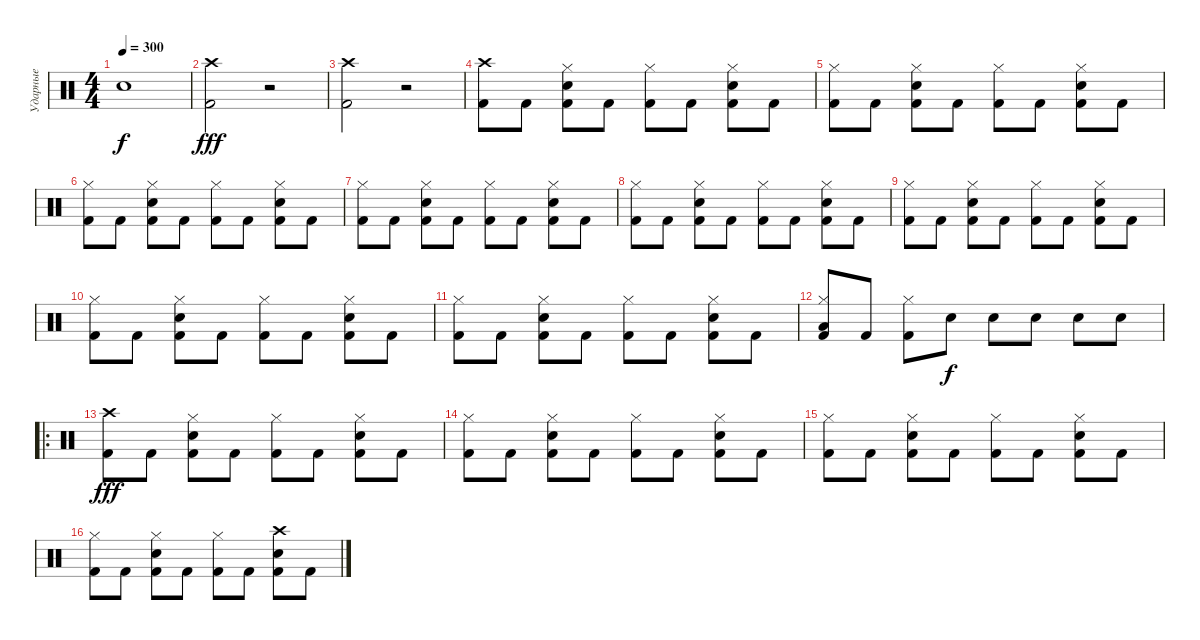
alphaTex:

\track ("Ударные" "Ударные") {instrument percussion}
\staff {score}
\articulation defaults
\ts (4 4)
\tempo 300
\clef neutral
\ks c "Snare (hit)"{t}.1{dy f}
|
("Kick (hit) 2" "Crash high (hit)").2{dy fff} r.2 |
("Kick (hit) 2" "Crash high (hit)").2 r.2 |
("Kick (hit) 2" "Crash high (hit)").8 "Kick (hit) 2".8 ("Kick (hit) 2" "Snare (hit) 2" "Hi-Hat (closed)").8 "Kick (hit) 2".8 ("Kick (hit) 2" "Hi-Hat (closed)").8 "Kick (hit) 2".8 ("Kick (hit) 2" "Snare (hit) 2" "Hi-Hat (closed)").8 "Kick (hit) 2".8 |
("Kick (hit) 2" "Hi-Hat (closed)").8 "Kick (hit) 2".8 ("Kick (hit) 2" "Snare (hit) 2" "Hi-Hat (closed)").8 "Kick (hit) 2".8 ("Kick (hit) 2" "Hi-Hat (closed)").8 "Kick (hit) 2".8 ("Kick (hit) 2" "Snare (hit) 2" "Hi-Hat (closed)").8 "Kick (hit) 2".8 |
("Kick (hit) 2" "Hi-Hat (closed)").8 "Kick (hit) 2".8 ("Kick (hit) 2" "Snare (hit) 2" "Hi-Hat (closed)").8 "Kick (hit) 2".8 ("Kick (hit) 2" "Hi-Hat (closed)").8 "Kick (hit) 2".8 ("Kick (hit) 2" "Snare (hit) 2" "Hi-Hat (closed)").8 "Kick (hit) 2".8 |
("Kick (hit) 2" "Hi-Hat (closed)").8 "Kick (hit) 2".8 ("Kick (hit) 2" "Snare (hit) 2" "Hi-Hat (closed)").8 "Kick (hit) 2".8 ("Kick (hit) 2" "Hi-Hat (closed)").8 "Kick (hit) 2".8 ("Kick (hit) 2" "Snare (hit) 2" "Hi-Hat (closed)").8 "Kick (hit) 2".8 |
("Kick (hit) 2" "Hi-Hat (closed)").8 "Kick (hit) 2".8 ("Kick (hit) 2" "Snare (hit) 2" "Hi-Hat (closed)").8 "Kick (hit) 2".8 ("Kick (hit) 2" "Hi-Hat (closed)").8 "Kick (hit) 2".8 ("Kick (hit) 2" "Snare (hit) 2" "Hi-Hat (closed)").8 "Kick (hit) 2".8 |
("Kick (hit) 2" "Hi-Hat (closed)").8 "Kick (hit) 2".8 ("Kick (hit) 2" "Snare (hit) 2" "Hi-Hat (closed)").8 "Kick (hit) 2".8 ("Kick (hit) 2" "Hi-Hat (closed)").8 "Kick (hit) 2".8 ("Kick (hit) 2" "Snare (hit) 2" "Hi-Hat (closed)").8 "Kick (hit) 2".8 |
("Kick (hit) 2" "Hi-Hat (closed)").8 "Kick (hit) 2".8 ("Kick (hit) 2" "Snare (hit) 2" "Hi-Hat (closed)").8 "Kick (hit) 2".8 ("Kick (hit) 2" "Hi-Hat (closed)").8 "Kick (hit) 2".8 ("Kick (hit) 2" "Snare (hit) 2" "Hi-Hat (closed)").8 "Kick (hit) 2".8 |
("Kick (hit) 2" "Hi-Hat (closed)").8 "Kick (hit) 2".8 ("Kick (hit) 2" "Snare (hit) 2" "Hi-Hat (closed)").8 "Kick (hit) 2".8 ("Kick (hit) 2" "Hi-Hat (closed)").8 "Kick (hit) 2".8 ("Kick (hit) 2" "Snare (hit) 2" "Hi-Hat (closed)").8 "Kick (hit) 2".8 |
("Kick (hit) 2" "Low Tom (hit)" "Hi-Hat (closed)").8 "Kick (hit) 2".8 ("Kick (hit) 2" "Hi-Hat (closed)").8 "Snare (hit) 2".8{dy f} "Snare (hit) 2".8 "Snare (hit) 2".8 "Snare (hit) 2".8 "Snare (hit) 2".8 |
\ro
("Kick (hit) 2" "Crash high (hit)").8{dy fff} "Kick (hit) 2".8 ("Kick (hit) 2" "Snare (hit) 2" "Hi-Hat (closed)").8 "Kick (hit) 2".8 ("Kick (hit) 2" "Hi-Hat (closed)").8 "Kick (hit) 2".8 ("Kick (hit) 2" "Snare (hit) 2" "Hi-Hat (closed)").8 "Kick (hit) 2".8 |
("Kick (hit) 2" "Hi-Hat (closed)").8 "Kick (hit) 2".8 ("Kick (hit) 2" "Snare (hit) 2" "Hi-Hat (closed)").8 "Kick (hit) 2".8 ("Kick (hit) 2" "Hi-Hat (closed)").8 "Kick (hit) 2".8 ("Kick (hit) 2" "Snare (hit) 2" "Hi-Hat (closed)").8 "Kick (hit) 2".8 |
("Kick (hit) 2" "Hi-Hat (closed)").8 "Kick (hit) 2".8 ("Kick (hit) 2" "Snare (hit) 2" "Hi-Hat (closed)").8 "Kick (hit) 2".8 ("Kick (hit) 2" "Hi-Hat (closed)").8 "Kick (hit) 2".8 ("Kick (hit) 2" "Snare (hit) 2" "Hi-Hat (closed)").8 "Kick (hit) 2".8 |
("Kick (hit) 2" "Hi-Hat (closed)").8 "Kick (hit) 2".8 ("Kick (hit) 2" "Snare (hit) 2" "Hi-Hat (closed)").8 "Kick (hit) 2".8 ("Kick (hit) 2" "Hi-Hat (closed)").8 "Kick (hit) 2".8 ("Kick (hit) 2" "Snare (hit) 2" "Crash high (hit)").8 "Kick (hit) 2".8
